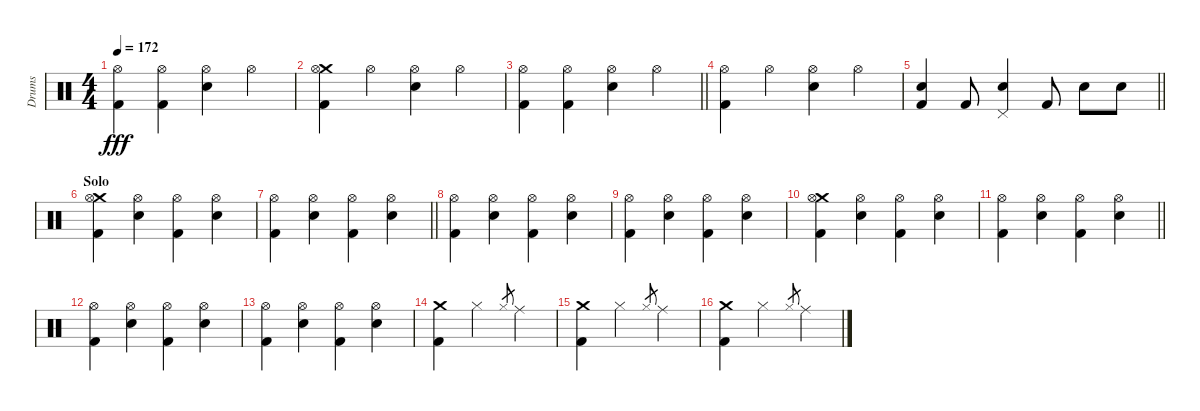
\track ("Drums" "Drums") {instrument percussion}
\staff {score}
\articulation defaults
\ts (4 4)
\tempo 172
\clef neutral
\ks c
("Hi-Hat (open)" "Kick (hit) 2").4{dy fff} ("Hi-Hat (open)" "Kick (hit) 2").4 ("Hi-Hat (open)" "Electric Snare (hit)").4 "Hi-Hat (open)".4 |
("Crash medium (hit)" "Hi-Hat (open)" "Kick (hit) 2").4 "Hi-Hat (open)".4 ("Hi-Hat (open)" "Electric Snare (hit)").4 "Hi-Hat (open)".4 |
\barLineRight lightlight
("Hi-Hat (open)" "Kick (hit) 2").4 ("Hi-Hat (open)" "Kick (hit) 2").4 ("Hi-Hat (open)" "Electric Snare (hit)").4 "Hi-Hat (open)".4 |
("Hi-Hat (open)" "Kick (hit) 2").4 "Hi-Hat (open)".4 ("Hi-Hat (open)" "Electric Snare (hit)").4 "Hi-Hat (open)".4 |
\barLineRight lightlight
("Electric Snare (hit)" "Kick (hit) 2").4 "Kick (hit) 2".8 ("Pedal Hi-Hat (hit)" "Electric Snare (hit)").4 "Kick (hit) 2".8 "Electric Snare (hit)".8 "Electric Snare (hit)".8 |
\section ("" "Solo")
("Crash medium (hit)" "Hi-Hat (open)" "Kick (hit) 2").4 ("Hi-Hat (open)" "Electric Snare (hit)").4 ("Hi-Hat (open)" "Kick (hit) 2").4 ("Hi-Hat (open)" "Electric Snare (hit)").4 |
\barLineRight lightlight
("Hi-Hat (open)" "Kick (hit) 2").4 ("Hi-Hat (open)" "Electric Snare (hit)").4 ("Hi-Hat (open)" "Kick (hit) 2").4 ("Hi-Hat (open)" "Electric Snare (hit)").4 |
("Hi-Hat (open)" "Kick (hit) 2").4 ("Hi-Hat (open)" "Electric Snare (hit)").4 ("Hi-Hat (open)" "Kick (hit) 2").4 ("Hi-Hat (open)" "Electric Snare (hit)").4 |
("Hi-Hat (open)" "Kick (hit) 2").4 ("Hi-Hat (open)" "Electric Snare (hit)").4 ("Hi-Hat (open)" "Kick (hit) 2").4 ("Hi-Hat (open)" "Electric Snare (hit)").4 |
("Crash medium (hit)" "Hi-Hat (open)" "Kick (hit) 2").4 ("Hi-Hat (open)" "Electric Snare (hit)").4 ("Hi-Hat (open)" "Kick (hit) 2").4 ("Hi-Hat (open)" "Electric Snare (hit)").4 |
\barLineRight lightlight
("Hi-Hat (open)" "Kick (hit) 2").4 ("Hi-Hat (open)" "Electric Snare (hit)").4 ("Hi-Hat (open)" "Kick (hit) 2").4 ("Hi-Hat (open)" "Electric Snare (hit)").4 |
("Hi-Hat (open)" "Kick (hit) 2").4 ("Hi-Hat (open)" "Electric Snare (hit)").4 ("Hi-Hat (open)" "Kick (hit) 2").4 ("Hi-Hat (open)" "Electric Snare (hit)").4 |
("Hi-Hat (open)" "Kick (hit) 2").4 ("Hi-Hat (open)" "Electric Snare (hit)").4 ("Hi-Hat (open)" "Kick (hit) 2").4 ("Hi-Hat (open)" "Electric Snare (hit)").4 |
("Crash medium (hit)" "Kick (hit) 2").4 "Hi-Hat (closed)".2 "Hi-Hat (closed)".8{gr} "Ride (middle)".4 |
("Crash medium (hit)" "Kick (hit) 2").4 "Hi-Hat (closed)".2 "Hi-Hat (closed)".8{gr} "Ride (middle)".4 |
("Crash medium (hit)" "Kick (hit) 2").4 "Hi-Hat (closed)".2 "Hi-Hat (closed)".8{gr} "Ride (middle)".4
